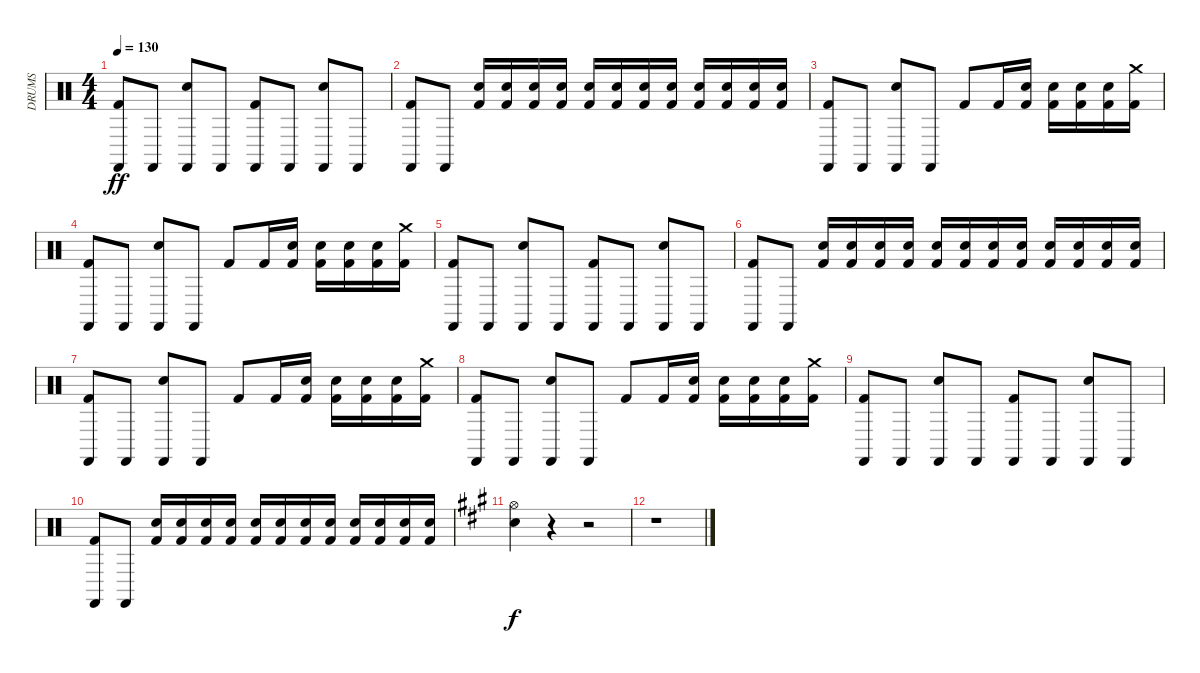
\track ("DRUMS" "DRUMS") {instrument percussion}
\staff {score}
\articulation defaults
\ts (4 4)
\tempo 130
\clef neutral
\ks c
("Castanets (hit)" "Kick (hit) 2").8{dy ff} "Castanets (hit)".8 ("Castanets (hit)" "Snare (hit) 2").8 "Castanets (hit)".8 ("Castanets (hit)" "Kick (hit) 2").8 "Castanets (hit)".8 ("Castanets (hit)" "Snare (hit) 2").8 "Castanets (hit)".8 |
("Castanets (hit)" "Kick (hit) 2").8 "Castanets (hit)".8 ("Snare (hit) 2" "Kick (hit) 2").16 ("Snare (hit) 2" "Kick (hit) 2").16 ("Snare (hit) 2" "Kick (hit) 2").16 ("Snare (hit) 2" "Kick (hit) 2").16 ("Snare (hit) 2" "Kick (hit) 2").16 ("Snare (hit) 2" "Kick (hit) 2").16 ("Snare (hit) 2" "Kick (hit) 2").16 ("Snare (hit) 2" "Kick (hit) 2").16 ("Snare (hit) 2" "Kick (hit) 2").16 ("Snare (hit) 2" "Kick (hit) 2").16 ("Snare (hit) 2" "Kick (hit) 2").16 ("Snare (hit) 2" "Kick (hit) 2").16 |
("Castanets (hit)" "Kick (hit) 2").8 "Castanets (hit)".8 ("Castanets (hit)" "Snare (hit) 2").8 "Castanets (hit)".8 "Kick (hit) 2".8 "Kick (hit) 2".16 ("Snare (hit) 2" "Kick (hit) 2").16 ("Snare (hit) 2" "Kick (hit) 2").16 ("Snare (hit) 2" "Kick (hit) 2").16 ("Snare (hit) 2" "Kick (hit) 2").16 ("Crash medium (hit)" "Kick (hit) 2").16 |
("Castanets (hit)" "Kick (hit) 2").8 "Castanets (hit)".8 ("Castanets (hit)" "Snare (hit) 2").8 "Castanets (hit)".8 "Kick (hit) 2".8 "Kick (hit) 2".16 ("Snare (hit) 2" "Kick (hit) 2").16 ("Snare (hit) 2" "Kick (hit) 2").16 ("Snare (hit) 2" "Kick (hit) 2").16 ("Snare (hit) 2" "Kick (hit) 2").16 ("Crash medium (hit)" "Kick (hit) 2").16 |
("Castanets (hit)" "Kick (hit) 2").8 "Castanets (hit)".8 ("Castanets (hit)" "Snare (hit) 2").8 "Castanets (hit)".8 ("Castanets (hit)" "Kick (hit) 2").8 "Castanets (hit)".8 ("Castanets (hit)" "Snare (hit) 2").8 "Castanets (hit)".8 |
("Castanets (hit)" "Kick (hit) 2").8 "Castanets (hit)".8 ("Snare (hit) 2" "Kick (hit) 2").16 ("Snare (hit) 2" "Kick (hit) 2").16 ("Snare (hit) 2" "Kick (hit) 2").16 ("Snare (hit) 2" "Kick (hit) 2").16 ("Snare (hit) 2" "Kick (hit) 2").16 ("Snare (hit) 2" "Kick (hit) 2").16 ("Snare (hit) 2" "Kick (hit) 2").16 ("Snare (hit) 2" "Kick (hit) 2").16 ("Snare (hit) 2" "Kick (hit) 2").16 ("Snare (hit) 2" "Kick (hit) 2").16 ("Snare (hit) 2" "Kick (hit) 2").16 ("Snare (hit) 2" "Kick (hit) 2").16 |
("Castanets (hit)" "Kick (hit) 2").8 "Castanets (hit)".8 ("Castanets (hit)" "Snare (hit) 2").8 "Castanets (hit)".8 "Kick (hit) 2".8 "Kick (hit) 2".16 ("Snare (hit) 2" "Kick (hit) 2").16 ("Snare (hit) 2" "Kick (hit) 2").16 ("Snare (hit) 2" "Kick (hit) 2").16 ("Snare (hit) 2" "Kick (hit) 2").16 ("Crash medium (hit)" "Kick (hit) 2").16 |
("Castanets (hit)" "Kick (hit) 2").8 "Castanets (hit)".8 ("Castanets (hit)" "Snare (hit) 2").8 "Castanets (hit)".8 "Kick (hit) 2".8 "Kick (hit) 2".16 ("Snare (hit) 2" "Kick (hit) 2").16 ("Snare (hit) 2" "Kick (hit) 2").16 ("Snare (hit) 2" "Kick (hit) 2").16 ("Snare (hit) 2" "Kick (hit) 2").16 ("Crash medium (hit)" "Kick (hit) 2").16 |
("Castanets (hit)" "Kick (hit) 2").8 "Castanets (hit)".8 ("Castanets (hit)" "Snare (hit) 2").8 "Castanets (hit)".8 ("Castanets (hit)" "Kick (hit) 2").8 "Castanets (hit)".8 ("Castanets (hit)" "Snare (hit) 2").8 "Castanets (hit)".8 |
("Castanets (hit)" "Kick (hit) 2").8 "Castanets (hit)".8 ("Snare (hit) 2" "Kick (hit) 2").16 ("Snare (hit) 2" "Kick (hit) 2").16 ("Snare (hit) 2" "Kick (hit) 2").16 ("Snare (hit) 2" "Kick (hit) 2").16 ("Snare (hit) 2" "Kick (hit) 2").16 ("Snare (hit) 2" "Kick (hit) 2").16 ("Snare (hit) 2" "Kick (hit) 2").16 ("Snare (hit) 2" "Kick (hit) 2").16 ("Snare (hit) 2" "Kick (hit) 2").16 ("Snare (hit) 2" "Kick (hit) 2").16 ("Snare (hit) 2" "Kick (hit) 2").16 ("Snare (hit) 2" "Kick (hit) 2").16 |
\ks f#minor
("Hi-Hat (open)" "Snare (hit) 2").4{dy f} r.4 r.2 |
r.1
